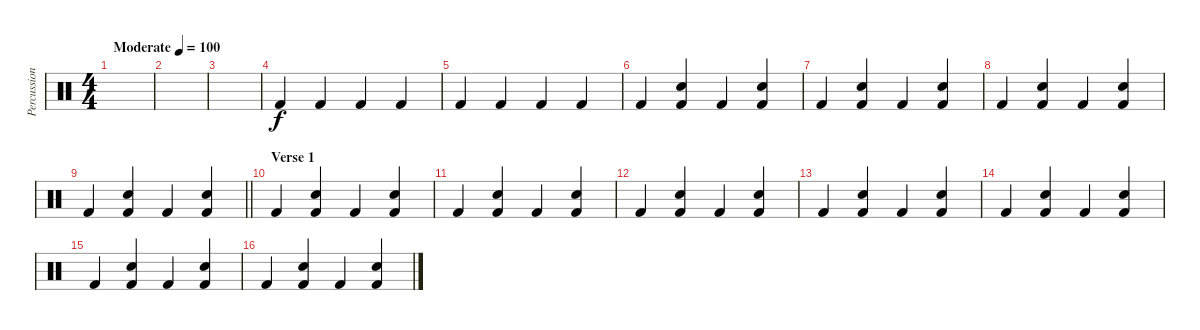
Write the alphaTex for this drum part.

\track ("Percussion" "Percussion") {instrument percussion}
\staff {score}
\articulation defaults
\ts (4 4)
\tempo (100 "Moderate")
\clef neutral
\ks c
|
|
|
"Kick (hit) 2".4 "Kick (hit) 2".4 "Kick (hit) 2".4 "Kick (hit) 2".4 |
"Kick (hit) 2".4 "Kick (hit) 2".4 "Kick (hit) 2".4 "Kick (hit) 2".4 |
"Kick (hit) 2".4 ("Snare (hit) 2" "Kick (hit) 2").4 "Kick (hit) 2".4 ("Snare (hit) 2" "Kick (hit) 2").4 |
"Kick (hit) 2".4 ("Snare (hit) 2" "Kick (hit) 2").4 "Kick (hit) 2".4 ("Snare (hit) 2" "Kick (hit) 2").4 |
"Kick (hit) 2".4 ("Snare (hit) 2" "Kick (hit) 2").4 "Kick (hit) 2".4 ("Snare (hit) 2" "Kick (hit) 2").4 |
\barLineRight lightlight "Kick (hit) 2".4
("Snare (hit) 2" "Kick (hit) 2").4 "Kick (hit) 2".4 ("Snare (hit) 2" "Kick (hit) 2").4 |
\section ("" "Verse 1")
"Kick (hit) 2".4 ("Snare (hit) 2" "Kick (hit) 2").4 "Kick (hit) 2".4 ("Snare (hit) 2" "Kick (hit) 2").4 |
"Kick (hit) 2".4 ("Snare (hit) 2" "Kick (hit) 2").4 "Kick (hit) 2".4 ("Snare (hit) 2" "Kick (hit) 2").4 |
"Kick (hit) 2".4 ("Snare (hit) 2" "Kick (hit) 2").4 "Kick (hit) 2".4 ("Snare (hit) 2" "Kick (hit) 2").4 |
"Kick (hit) 2".4 ("Snare (hit) 2" "Kick (hit) 2").4 "Kick (hit) 2".4 ("Snare (hit) 2" "Kick (hit) 2").4 |
"Kick (hit) 2".4 ("Snare (hit) 2" "Kick (hit) 2").4 "Kick (hit) 2".4 ("Snare (hit) 2" "Kick (hit) 2").4 |
"Kick (hit) 2".4 ("Snare (hit) 2" "Kick (hit) 2").4 "Kick (hit) 2".4 ("Snare (hit) 2" "Kick (hit) 2").4 |
"Kick (hit) 2".4 ("Snare (hit) 2" "Kick (hit) 2").4 "Kick (hit) 2".4 ("Snare (hit) 2" "Kick (hit) 2").4
